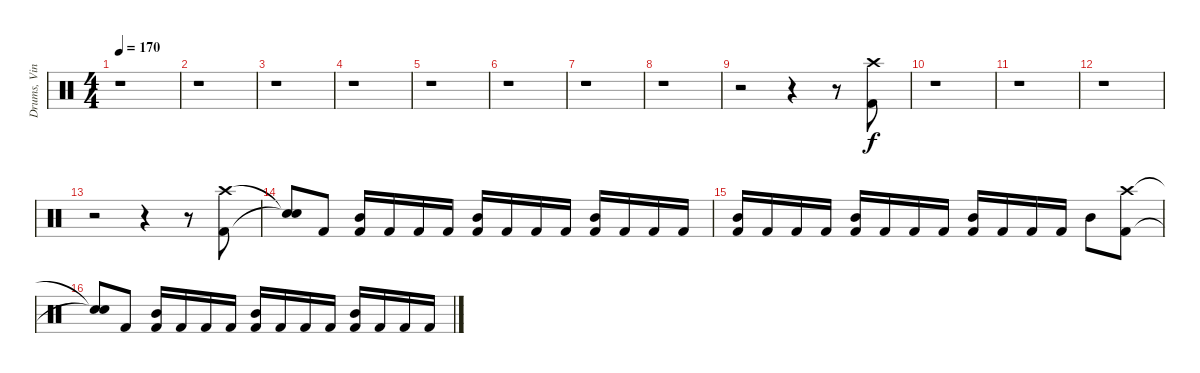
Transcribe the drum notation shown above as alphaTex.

\track ("Drums, Vinnie" "Drums, Vin") {instrument percussion}
\staff {score}
\articulation defaults
\ts (4 4)
\tempo 170
\clef neutral
\ks c
r.1{dy f} |
r.1 |
r.1 |
r.1 |
r.1 |
r.1 |
r.1 |
r.1 |
r.2 r.4 r.8 ("Crash high (hit)" "Kick (hit) 2").8 |
r.1 |
r.1 |
r.1 |
r.2 r.4 r.8 ("Crash high (hit)" "Kick (hit) 2").8 |
("Snare (hit)"{t} "Snare (hit)"{t}).8 "Kick (hit) 2".8 ("Mid Tom (hit)" "Kick (hit) 2").16 "Kick (hit) 2".16 "Kick (hit) 2".16 "Kick (hit) 2".16 ("Mid Tom (hit)" "Kick (hit) 2").16 "Kick (hit) 2".16 "Kick (hit) 2".16 "Kick (hit) 2".16 ("Mid Tom (hit)" "Kick (hit) 2").16 "Kick (hit) 2".16 "Kick (hit) 2".16 "Kick (hit) 2".16 |
("Mid Tom (hit)" "Kick (hit) 2").16 "Kick (hit) 2".16 "Kick (hit) 2".16 "Kick (hit) 2".16 ("Mid Tom (hit)" "Kick (hit) 2").16 "Kick (hit) 2".16 "Kick (hit) 2".16 "Kick (hit) 2".16 ("Mid Tom (hit)" "Kick (hit) 2").16 "Kick (hit) 2".16 "Kick (hit) 2".16 "Kick (hit) 2".16 "Mid Tom (hit)".8 ("Crash high (hit)" "Kick (hit) 2").8 |
("Snare (hit)"{t} "Snare (hit)"{t}).8 "Kick (hit) 2".8 ("Mid Tom (hit)" "Kick (hit) 2").16 "Kick (hit) 2".16 "Kick (hit) 2".16 "Kick (hit) 2".16 ("Mid Tom (hit)" "Kick (hit) 2").16 "Kick (hit) 2".16 "Kick (hit) 2".16 "Kick (hit) 2".16 ("Mid Tom (hit)" "Kick (hit) 2").16 "Kick (hit) 2".16 "Kick (hit) 2".16 "Kick (hit) 2".16
